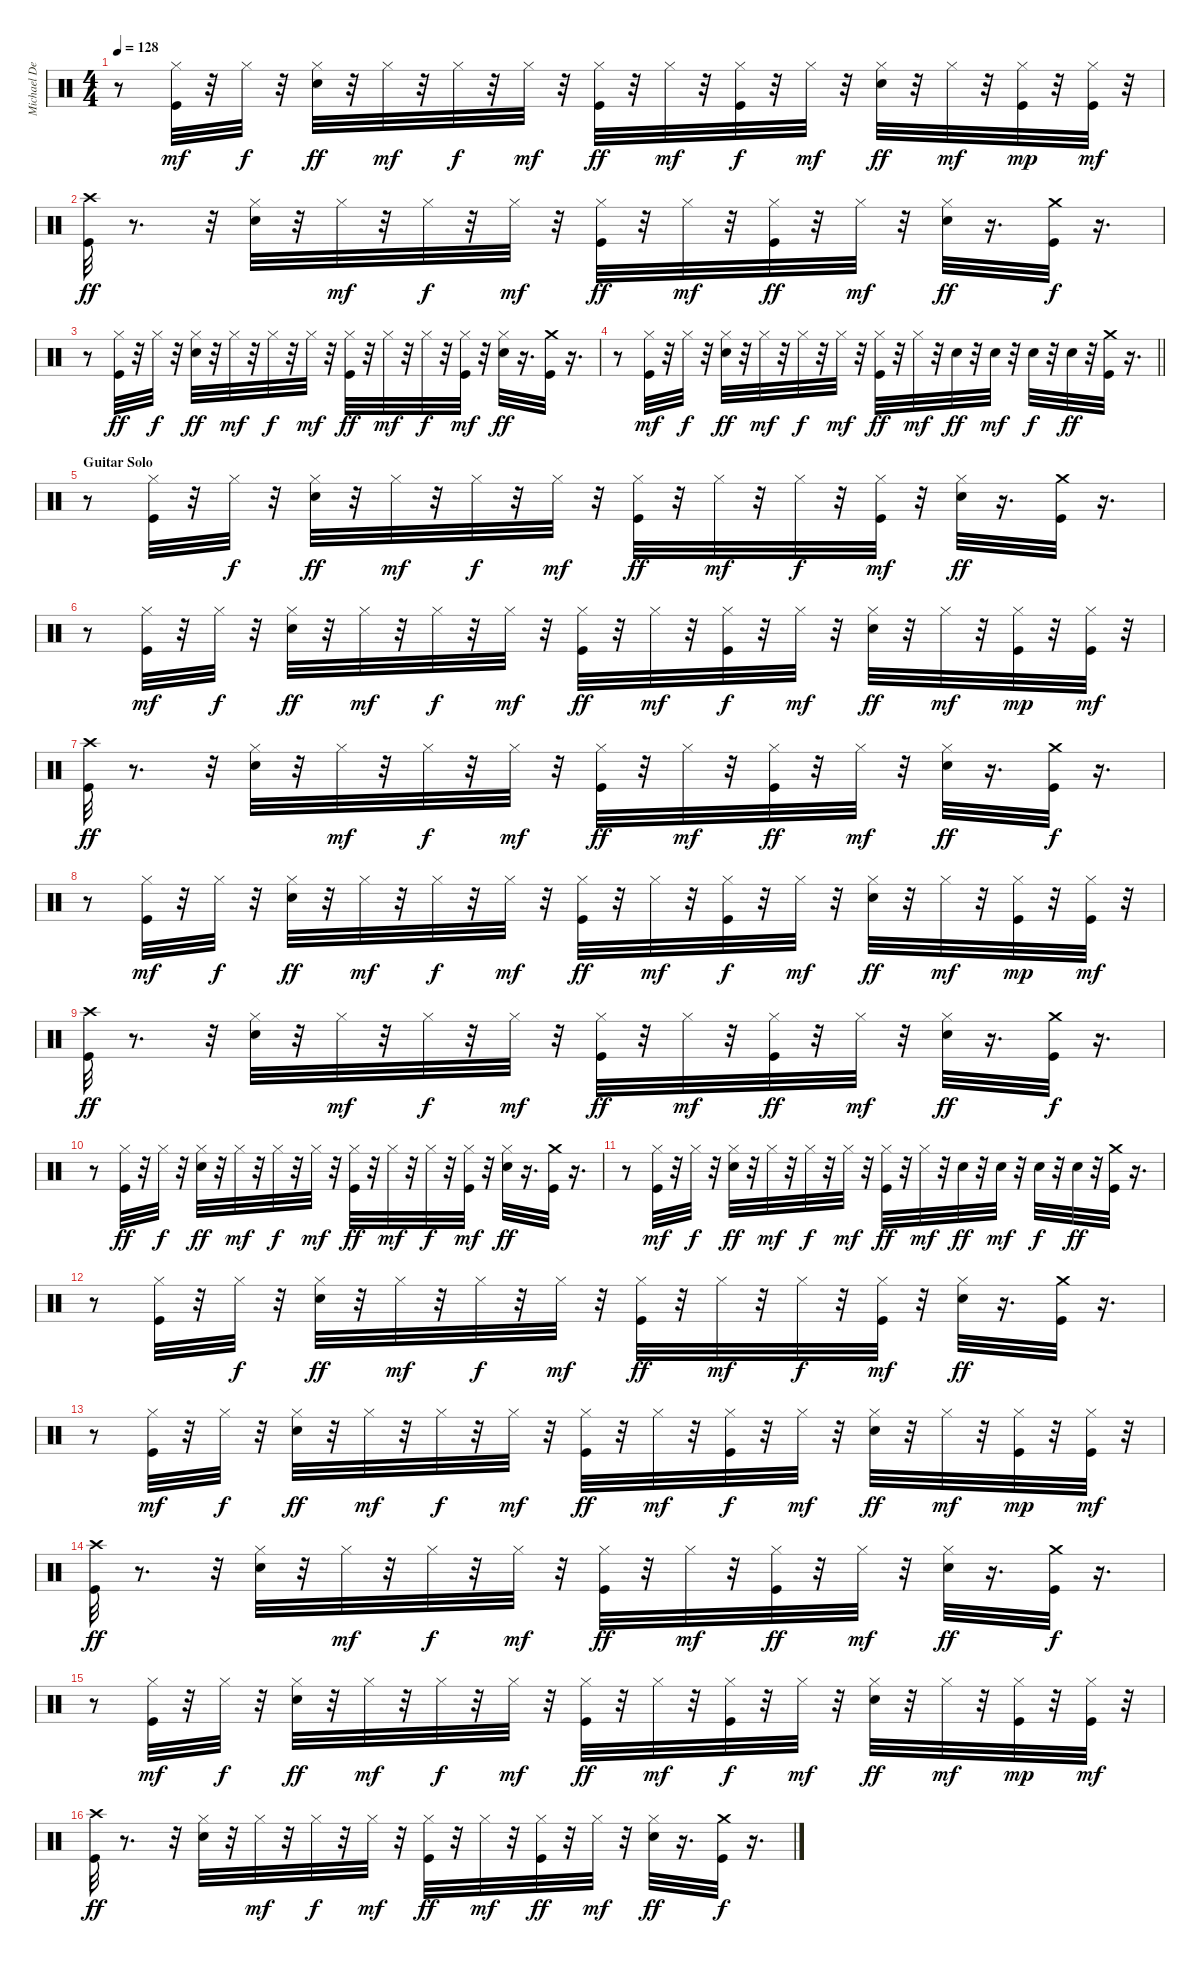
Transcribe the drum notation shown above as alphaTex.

\track ("Michael DeRosier" "Michael De") {instrument percussion}
\staff {score}
\articulation defaults
\ts (4 4)
\tempo 128
\clef neutral
\ks c
r.8{dy f} ("Hi-Hat (closed)" "Kick (hit)").32{dy mf} r.32 "Hi-Hat (closed)".32{dy f} r.32 ("Snare (hit) 2" "Hi-Hat (closed)").32{dy ff} r.32 "Hi-Hat (closed)".32{dy mf} r.32 "Hi-Hat (closed)".32{dy f} r.32 "Hi-Hat (closed)".32{dy mf} r.32 ("Kick (hit)" "Hi-Hat (closed)").32{dy ff} r.32 "Hi-Hat (closed)".32{dy mf} r.32 ("Hi-Hat (closed)" "Kick (hit)").32{dy f} r.32 "Hi-Hat (closed)".32{dy mf} r.32 ("Snare (hit) 2" "Hi-Hat (closed)").32{dy ff} r.32 "Hi-Hat (closed)".32{dy mf} r.32 ("Kick (hit)" "Hi-Hat (closed)").32{dy mp} r.32 ("Hi-Hat (closed)" "Kick (hit)").32{dy mf} r.32 |
("Kick (hit)" "Crash high (hit)").32{dy ff} r.8{d} r.32 ("Snare (hit) 2" "Hi-Hat (closed)").32 r.32 "Hi-Hat (closed)".32{dy mf} r.32 "Hi-Hat (closed)".32{dy f} r.32 "Hi-Hat (closed)".32{dy mf} r.32 ("Hi-Hat (closed)" "Kick (hit)").32{dy ff} r.32 "Hi-Hat (closed)".32{dy mf} r.32 ("Hi-Hat (closed)" "Kick (hit)").32{dy ff} r.32 "Hi-Hat (closed)".32{dy mf} r.32 ("Snare (hit) 2" "Hi-Hat (closed)").32{dy ff} r.16{d} ("Kick (hit)" "Crash medium (hit)").32{dy f} r.16{d} |
r.8 ("Hi-Hat (closed)" "Kick (hit)").32{dy ff} r.32 "Hi-Hat (closed)".32{dy f} r.32 ("Snare (hit) 2" "Hi-Hat (closed)").32{dy ff} r.32 "Hi-Hat (closed)".32{dy mf} r.32 "Hi-Hat (closed)".32{dy f} r.32 "Hi-Hat (closed)".32{dy mf} r.32 ("Hi-Hat (closed)" "Kick (hit)").32{dy ff} r.32 "Hi-Hat (closed)".32{dy mf} r.32 "Hi-Hat (closed)".32{dy f} r.32 ("Kick (hit)" "Hi-Hat (closed)").32{dy mf} r.32 ("Snare (hit) 2" "Hi-Hat (closed)").32{dy ff} r.16{d} ("Kick (hit)" "Crash medium (hit)").32 r.16{d} |
\barLineRight lightlight
r.8 ("Hi-Hat (closed)" "Kick (hit)").32{dy mf} r.32 "Hi-Hat (closed)".32{dy f} r.32 ("Snare (hit) 2" "Hi-Hat (closed)").32{dy ff} r.32 "Hi-Hat (closed)".32{dy mf} r.32 "Hi-Hat (closed)".32{dy f} r.32 "Hi-Hat (closed)".32{dy mf} r.32 ("Kick (hit)" "Hi-Hat (closed)").32{dy ff} r.32 "Hi-Hat (closed)".32{dy mf} r.32 "Snare (hit) 2".32{dy ff} r.32 "Snare (hit) 2".32{dy mf} r.32 "Snare (hit) 2".32{dy f} r.32 "Snare (hit) 2".32{dy ff} r.32 ("Kick (hit)" "Crash medium (hit)").32 r.16{d} |
\section ("" "Guitar Solo")
r.8 ("Hi-Hat (closed)" "Kick (hit)").32 r.32 "Hi-Hat (closed)".32{dy f} r.32 ("Snare (hit) 2" "Hi-Hat (closed)").32{dy ff} r.32 "Hi-Hat (closed)".32{dy mf} r.32 "Hi-Hat (closed)".32{dy f} r.32 "Hi-Hat (closed)".32{dy mf} r.32 ("Hi-Hat (closed)" "Kick (hit)").32{dy ff} r.32 "Hi-Hat (closed)".32{dy mf} r.32 "Hi-Hat (closed)".32{dy f} r.32 ("Hi-Hat (closed)" "Kick (hit)").32{dy mf} r.32 ("Snare (hit) 2" "Hi-Hat (closed)").32{dy ff} r.16{d} ("Kick (hit)" "Crash medium (hit)").32 r.16{d} |
r.8 ("Hi-Hat (closed)" "Kick (hit)").32{dy mf} r.32 "Hi-Hat (closed)".32{dy f} r.32 ("Snare (hit) 2" "Hi-Hat (closed)").32{dy ff} r.32 "Hi-Hat (closed)".32{dy mf} r.32 "Hi-Hat (closed)".32{dy f} r.32 "Hi-Hat (closed)".32{dy mf} r.32 ("Hi-Hat (closed)" "Kick (hit)").32{dy ff} r.32 "Hi-Hat (closed)".32{dy mf} r.32 ("Hi-Hat (closed)" "Kick (hit)").32{dy f} r.32 "Hi-Hat (closed)".32{dy mf} r.32 ("Snare (hit) 2" "Hi-Hat (closed)").32{dy ff} r.32 "Hi-Hat (closed)".32{dy mf} r.32 ("Kick (hit)" "Hi-Hat (closed)").32{dy mp} r.32 ("Hi-Hat (closed)" "Kick (hit)").32{dy mf} r.32 |
("Kick (hit)" "Crash high (hit)").32{dy ff} r.8{d} r.32 ("Snare (hit) 2" "Hi-Hat (closed)").32 r.32 "Hi-Hat (closed)".32{dy mf} r.32 "Hi-Hat (closed)".32{dy f} r.32 "Hi-Hat (closed)".32{dy mf} r.32 ("Hi-Hat (closed)" "Kick (hit)").32{dy ff} r.32 "Hi-Hat (closed)".32{dy mf} r.32 ("Hi-Hat (closed)" "Kick (hit)").32{dy ff} r.32 "Hi-Hat (closed)".32{dy mf} r.32 ("Snare (hit) 2" "Hi-Hat (closed)").32{dy ff} r.16{d} ("Kick (hit)" "Crash medium (hit)").32{dy f} r.16{d} |
r.8 ("Hi-Hat (closed)" "Kick (hit)").32{dy mf} r.32 "Hi-Hat (closed)".32{dy f} r.32 ("Snare (hit) 2" "Hi-Hat (closed)").32{dy ff} r.32 "Hi-Hat (closed)".32{dy mf} r.32 "Hi-Hat (closed)".32{dy f} r.32 "Hi-Hat (closed)".32{dy mf} r.32 ("Hi-Hat (closed)" "Kick (hit)").32{dy ff} r.32 "Hi-Hat (closed)".32{dy mf} r.32 ("Hi-Hat (closed)" "Kick (hit)").32{dy f} r.32 "Hi-Hat (closed)".32{dy mf} r.32 ("Snare (hit) 2" "Hi-Hat (closed)").32{dy ff} r.32 "Hi-Hat (closed)".32{dy mf} r.32 ("Hi-Hat (closed)" "Kick (hit)").32{dy mp} r.32 ("Hi-Hat (closed)" "Kick (hit)").32{dy mf} r.32 |
("Kick (hit)" "Crash high (hit)").32{dy ff} r.8{d} r.32 ("Snare (hit) 2" "Hi-Hat (closed)").32 r.32 "Hi-Hat (closed)".32{dy mf} r.32 "Hi-Hat (closed)".32{dy f} r.32 "Hi-Hat (closed)".32{dy mf} r.32 ("Kick (hit)" "Hi-Hat (closed)").32{dy ff} r.32 "Hi-Hat (closed)".32{dy mf} r.32 ("Hi-Hat (closed)" "Kick (hit)").32{dy ff} r.32 "Hi-Hat (closed)".32{dy mf} r.32 ("Snare (hit) 2" "Hi-Hat (closed)").32{dy ff} r.16{d} ("Kick (hit)" "Crash medium (hit)").32{dy f} r.16{d} |
r.8 ("Hi-Hat (closed)" "Kick (hit)").32{dy ff} r.32 "Hi-Hat (closed)".32{dy f} r.32 ("Snare (hit) 2" "Hi-Hat (closed)").32{dy ff} r.32 "Hi-Hat (closed)".32{dy mf} r.32 "Hi-Hat (closed)".32{dy f} r.32 "Hi-Hat (closed)".32{dy mf} r.32 ("Hi-Hat (closed)" "Kick (hit)").32{dy ff} r.32 "Hi-Hat (closed)".32{dy mf} r.32 "Hi-Hat (closed)".32{dy f} r.32 ("Hi-Hat (closed)" "Kick (hit)").32{dy mf} r.32 ("Snare (hit) 2" "Hi-Hat (closed)").32{dy ff} r.16{d} ("Kick (hit)" "Crash medium (hit)").32 r.16{d} |
r.8 ("Hi-Hat (closed)" "Kick (hit)").32{dy mf} r.32 "Hi-Hat (closed)".32{dy f} r.32 ("Snare (hit) 2" "Hi-Hat (closed)").32{dy ff} r.32 "Hi-Hat (closed)".32{dy mf} r.32 "Hi-Hat (closed)".32{dy f} r.32 "Hi-Hat (closed)".32{dy mf} r.32 ("Kick (hit)" "Hi-Hat (closed)").32{dy ff} r.32 "Hi-Hat (closed)".32{dy mf} r.32 "Snare (hit) 2".32{dy ff} r.32 "Snare (hit) 2".32{dy mf} r.32 "Snare (hit) 2".32{dy f} r.32 "Snare (hit) 2".32{dy ff} r.32 ("Kick (hit)" "Crash medium (hit)").32 r.16{d} |
r.8 ("Hi-Hat (closed)" "Kick (hit)").32 r.32 "Hi-Hat (closed)".32{dy f} r.32 ("Snare (hit) 2" "Hi-Hat (closed)").32{dy ff} r.32 "Hi-Hat (closed)".32{dy mf} r.32 "Hi-Hat (closed)".32{dy f} r.32 "Hi-Hat (closed)".32{dy mf} r.32 ("Hi-Hat (closed)" "Kick (hit)").32{dy ff} r.32 "Hi-Hat (closed)".32{dy mf} r.32 "Hi-Hat (closed)".32{dy f} r.32 ("Hi-Hat (closed)" "Kick (hit)").32{dy mf} r.32 ("Snare (hit) 2" "Hi-Hat (closed)").32{dy ff} r.16{d} ("Kick (hit)" "Crash medium (hit)").32 r.16{d} |
r.8 ("Hi-Hat (closed)" "Kick (hit)").32{dy mf} r.32 "Hi-Hat (closed)".32{dy f} r.32 ("Snare (hit) 2" "Hi-Hat (closed)").32{dy ff} r.32 "Hi-Hat (closed)".32{dy mf} r.32 "Hi-Hat (closed)".32{dy f} r.32 "Hi-Hat (closed)".32{dy mf} r.32 ("Hi-Hat (closed)" "Kick (hit)").32{dy ff} r.32 "Hi-Hat (closed)".32{dy mf} r.32 ("Hi-Hat (closed)" "Kick (hit)").32{dy f} r.32 "Hi-Hat (closed)".32{dy mf} r.32 ("Snare (hit) 2" "Hi-Hat (closed)").32{dy ff} r.32 "Hi-Hat (closed)".32{dy mf} r.32 ("Hi-Hat (closed)" "Kick (hit)").32{dy mp} r.32 ("Hi-Hat (closed)" "Kick (hit)").32{dy mf} r.32 |
("Kick (hit)" "Crash high (hit)").32{dy ff} r.8{d} r.32 ("Snare (hit) 2" "Hi-Hat (closed)").32 r.32 "Hi-Hat (closed)".32{dy mf} r.32 "Hi-Hat (closed)".32{dy f} r.32 "Hi-Hat (closed)".32{dy mf} r.32 ("Hi-Hat (closed)" "Kick (hit)").32{dy ff} r.32 "Hi-Hat (closed)".32{dy mf} r.32 ("Hi-Hat (closed)" "Kick (hit)").32{dy ff} r.32 "Hi-Hat (closed)".32{dy mf} r.32 ("Snare (hit) 2" "Hi-Hat (closed)").32{dy ff} r.16{d} ("Kick (hit)" "Crash medium (hit)").32{dy f} r.16{d} |
r.8 ("Hi-Hat (closed)" "Kick (hit)").32{dy mf} r.32 "Hi-Hat (closed)".32{dy f} r.32 ("Snare (hit) 2" "Hi-Hat (closed)").32{dy ff} r.32 "Hi-Hat (closed)".32{dy mf} r.32 "Hi-Hat (closed)".32{dy f} r.32 "Hi-Hat (closed)".32{dy mf} r.32 ("Hi-Hat (closed)" "Kick (hit)").32{dy ff} r.32 "Hi-Hat (closed)".32{dy mf} r.32 ("Hi-Hat (closed)" "Kick (hit)").32{dy f} r.32 "Hi-Hat (closed)".32{dy mf} r.32 ("Snare (hit) 2" "Hi-Hat (closed)").32{dy ff} r.32 "Hi-Hat (closed)".32{dy mf} r.32 ("Hi-Hat (closed)" "Kick (hit)").32{dy mp} r.32 ("Hi-Hat (closed)" "Kick (hit)").32{dy mf} r.32 |
("Kick (hit)" "Crash high (hit)").32{dy ff} r.8{d} r.32 ("Snare (hit) 2" "Hi-Hat (closed)").32 r.32 "Hi-Hat (closed)".32{dy mf} r.32 "Hi-Hat (closed)".32{dy f} r.32 "Hi-Hat (closed)".32{dy mf} r.32 ("Hi-Hat (closed)" "Kick (hit)").32{dy ff} r.32 "Hi-Hat (closed)".32{dy mf} r.32 ("Hi-Hat (closed)" "Kick (hit)").32{dy ff} r.32 "Hi-Hat (closed)".32{dy mf} r.32 ("Snare (hit) 2" "Hi-Hat (closed)").32{dy ff} r.16{d} ("Kick (hit)" "Crash medium (hit)").32{dy f} r.16{d}
